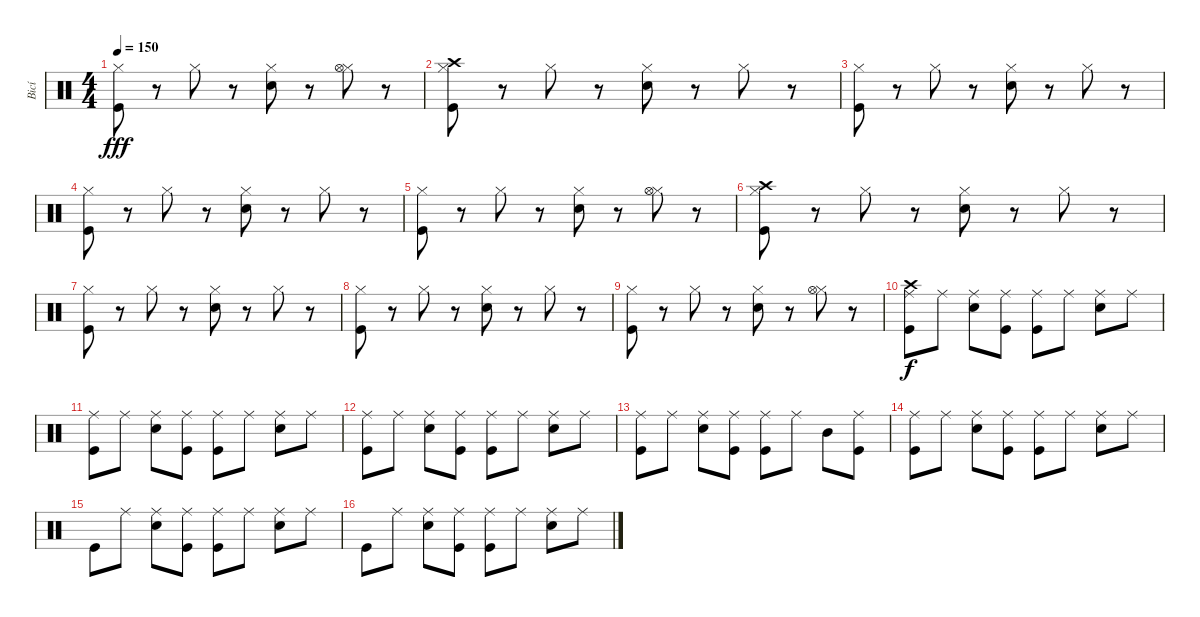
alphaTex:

\track ("Bicí" "Bicí") {instrument percussion}
\staff {score}
\articulation defaults
\ts (4 4)
\tempo 150
\clef neutral
\ks c
("Hi-Hat (closed)" "Kick (hit)").8{dy fff} r.8 "Hi-Hat (closed)".8 r.8 ("Hi-Hat (closed)" "Snare (hit) 2").8 r.8 ("Hi-Hat (closed)" "Hi-Hat (open)").8 r.8 |
("Hi-Hat (closed)" "Crash high (hit)" "Kick (hit)").8 r.8 "Hi-Hat (closed)".8 r.8 ("Hi-Hat (closed)" "Snare (hit) 2").8 r.8 "Hi-Hat (closed)".8 r.8 |
("Hi-Hat (closed)" "Kick (hit)").8 r.8 "Hi-Hat (closed)".8 r.8 ("Hi-Hat (closed)" "Snare (hit) 2").8 r.8 "Hi-Hat (closed)".8 r.8 |
("Hi-Hat (closed)" "Kick (hit)").8 r.8 "Hi-Hat (closed)".8 r.8 ("Hi-Hat (closed)" "Snare (hit) 2").8 r.8 "Hi-Hat (closed)".8 r.8 |
("Hi-Hat (closed)" "Kick (hit)").8 r.8 "Hi-Hat (closed)".8 r.8 ("Hi-Hat (closed)" "Snare (hit) 2").8 r.8 ("Hi-Hat (closed)" "Hi-Hat (open)").8 r.8 |
("Hi-Hat (closed)" "Crash high (hit)" "Kick (hit)").8 r.8 "Hi-Hat (closed)".8 r.8 ("Hi-Hat (closed)" "Snare (hit) 2").8 r.8 "Hi-Hat (closed)".8 r.8 |
("Hi-Hat (closed)" "Kick (hit)").8 r.8 "Hi-Hat (closed)".8 r.8 ("Hi-Hat (closed)" "Snare (hit) 2").8 r.8 "Hi-Hat (closed)".8 r.8 |
("Hi-Hat (closed)" "Kick (hit)").8 r.8 "Hi-Hat (closed)".8 r.8 ("Hi-Hat (closed)" "Snare (hit) 2").8 r.8 "Hi-Hat (closed)".8 r.8 |
("Hi-Hat (closed)" "Kick (hit)").8 r.8 "Hi-Hat (closed)".8 r.8 ("Hi-Hat (closed)" "Snare (hit) 2").8 r.8 ("Hi-Hat (closed)" "Hi-Hat (open)").8 r.8 |
("Crash high (hit)" "Ride (middle)" "Kick (hit)").8{dy f} "Ride (middle)".8 ("Ride (middle)" "Snare (hit) 2").8 ("Ride (middle)" "Kick (hit)").8 ("Ride (middle)" "Kick (hit)").8 "Ride (middle)".8 ("Ride (middle)" "Snare (hit) 2").8 "Ride (middle)".8 |
("Ride (middle)" "Kick (hit)").8 "Ride (middle)".8 ("Ride (middle)" "Snare (hit) 2").8 ("Ride (middle)" "Kick (hit)").8 ("Ride (middle)" "Kick (hit)").8 "Ride (middle)".8 ("Ride (middle)" "Snare (hit) 2").8 "Ride (middle)".8 |
("Ride (middle)" "Kick (hit)").8 "Ride (middle)".8 ("Ride (middle)" "Snare (hit) 2").8 ("Ride (middle)" "Kick (hit)").8 ("Ride (middle)" "Kick (hit)").8 "Ride (middle)".8 ("Ride (middle)" "Snare (hit) 2").8 "Ride (middle)".8 |
("Ride (middle)" "Kick (hit)").8 "Ride (middle)".8 ("Ride (middle)" "Snare (hit) 2").8 ("Ride (middle)" "Kick (hit)").8 ("Ride (middle)" "Kick (hit)").8 "Ride (middle)".8 "Mid Tom (hit)".8 ("Ride (middle)" "Kick (hit)").8 |
("Ride (middle)" "Kick (hit)").8 "Ride (middle)".8 ("Ride (middle)" "Snare (hit) 2").8 ("Ride (middle)" "Kick (hit)").8 ("Ride (middle)" "Kick (hit)").8 "Ride (middle)".8 ("Ride (middle)" "Snare (hit) 2").8 "Ride (middle)".8 |
"Kick (hit)".8 "Ride (middle)".8 ("Ride (middle)" "Snare (hit) 2").8 ("Ride (middle)" "Kick (hit)").8 ("Ride (middle)" "Kick (hit)").8 "Ride (middle)".8 ("Ride (middle)" "Snare (hit) 2").8 "Ride (middle)".8 |
"Kick (hit)".8 "Ride (middle)".8 ("Ride (middle)" "Snare (hit) 2").8 ("Ride (middle)" "Kick (hit)").8 ("Ride (middle)" "Kick (hit)").8 "Ride (middle)".8 ("Ride (middle)" "Snare (hit) 2").8 "Ride (middle)".8
